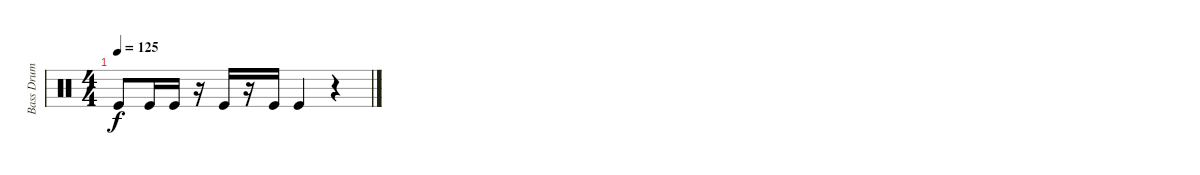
\track ("Bass Drum Boost" "Bass Drum ") {instrument percussion}
\staff {score}
\articulation defaults
\ts (4 4)
\tempo 125
\clef neutral
\ks c "Kick (hit)".8{dy f} "Kick (hit)".16 "Kick (hit)".16
r.16 "Kick (hit)".16 r.16 "Kick (hit)".16 "Kick (hit)".4 r.4
